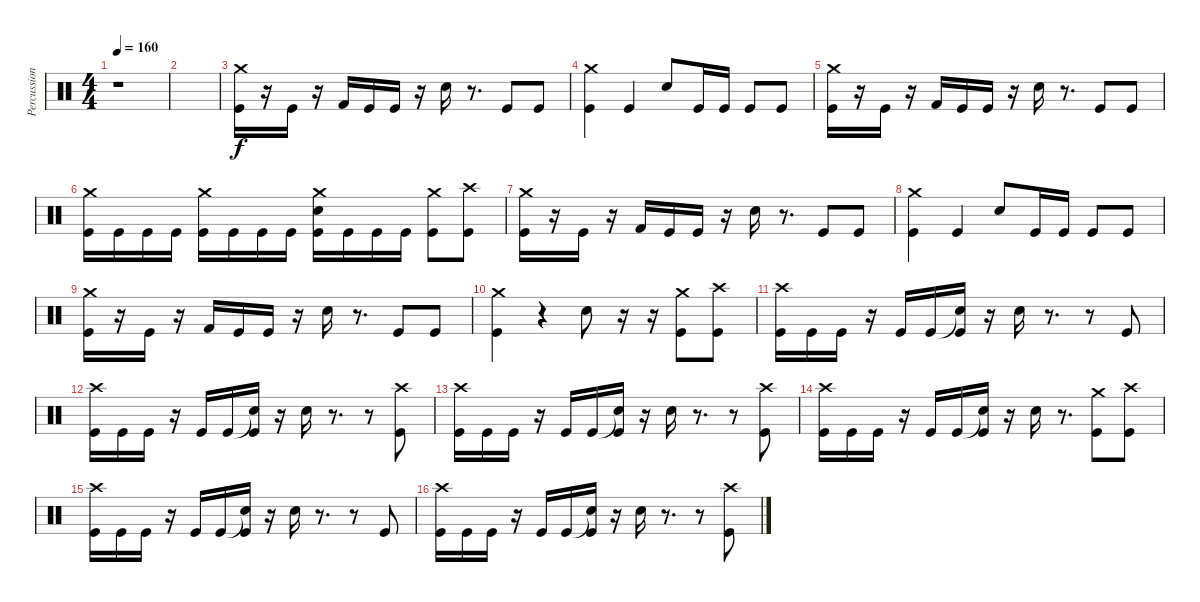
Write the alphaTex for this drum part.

\track ("Percussion" "Percussion") {instrument percussion}
\staff {score}
\articulation defaults
\ts (4 4)
\tempo 160
\clef neutral
\ks c
r.1{dy f} |
|
("Crash medium (hit)" "Kick (hit)").16 r.16 "Kick (hit)".16 r.16 "Kick (hit) 2".16 "Kick (hit)".16 "Kick (hit)".16 r.16 "Snare (hit) 2".16 r.8{d} "Kick (hit)".8 "Kick (hit)".8 |
("Crash medium (hit)" "Kick (hit)").4 "Kick (hit)".4 "Snare (hit) 2".8 "Kick (hit)".16 "Kick (hit)".16 "Kick (hit)".8 "Kick (hit)".8 |
("Crash medium (hit)" "Kick (hit)").16 r.16 "Kick (hit)".16 r.16 "Kick (hit) 2".16 "Kick (hit)".16 "Kick (hit)".16 r.16 "Snare (hit) 2".16 r.8{d} "Kick (hit)".8 "Kick (hit)".8 |
("Crash medium (hit)" "Kick (hit)").16 "Kick (hit)".16 "Kick (hit)".16 "Kick (hit)".16 ("Crash medium (hit)" "Kick (hit)").16 "Kick (hit)".16 "Kick (hit)".16 "Kick (hit)".16 ("Crash medium (hit)" "Snare (hit) 2" "Kick (hit)").16 "Kick (hit)".16 "Kick (hit)".16 "Kick (hit)".16 ("Crash medium (hit)" "Kick (hit)").8 ("Crash high (hit)" "Kick (hit)").8 |
("Crash medium (hit)" "Kick (hit)").16 r.16 "Kick (hit)".16 r.16 "Kick (hit) 2".16 "Kick (hit)".16 "Kick (hit)".16 r.16 "Snare (hit) 2".16 r.8{d} "Kick (hit)".8 "Kick (hit)".8 |
("Crash medium (hit)" "Kick (hit)").4 "Kick (hit)".4 "Snare (hit) 2".8 "Kick (hit)".16 "Kick (hit)".16 "Kick (hit)".8 "Kick (hit)".8 |
("Crash medium (hit)" "Kick (hit)").16 r.16 "Kick (hit)".16 r.16 "Kick (hit) 2".16 "Kick (hit)".16 "Kick (hit)".16 r.16 "Snare (hit) 2".16 r.8{d} "Kick (hit)".8 "Kick (hit)".8 |
("Crash medium (hit)" "Kick (hit)").4 r.4 "Snare (hit) 2".8 r.16 r.16 ("Crash medium (hit)" "Kick (hit)").8 ("Crash high (hit)" "Kick (hit)").8 |
("Crash high (hit)" "Kick (hit)").16 "Kick (hit)".16 "Kick (hit)".16 r.16 "Kick (hit)".16 "Kick (hit)".16 ("Snare (hit)"{t} "Kick (hit)").16 r.16 "Snare (hit) 2".16 r.8{d} r.8 "Kick (hit)".8 |
("Crash high (hit)" "Kick (hit)").16 "Kick (hit)".16 "Kick (hit)".16 r.16 "Kick (hit)".16 "Kick (hit)".16 ("Snare (hit)"{t} "Kick (hit)").16 r.16 "Snare (hit) 2".16 r.8{d} r.8 ("Crash high (hit)" "Kick (hit)").8 |
("Crash high (hit)" "Kick (hit)").16 "Kick (hit)".16 "Kick (hit)".16 r.16 "Kick (hit)".16 "Kick (hit)".16 ("Snare (hit)"{t} "Kick (hit)").16 r.16 "Snare (hit) 2".16 r.8{d} r.8 ("Crash high (hit)" "Kick (hit)").8 |
("Crash high (hit)" "Kick (hit)").16 "Kick (hit)".16 "Kick (hit)".16 r.16 "Kick (hit)".16 "Kick (hit)".16 ("Snare (hit)"{t} "Kick (hit)").16 r.16 "Snare (hit) 2".16 r.8{d} ("Crash medium (hit)" "Kick (hit)").8 ("Crash high (hit)" "Kick (hit)").8 |
("Crash high (hit)" "Kick (hit)").16 "Kick (hit)".16 "Kick (hit)".16 r.16 "Kick (hit)".16 "Kick (hit)".16 ("Snare (hit)"{t} "Kick (hit)").16 r.16 "Snare (hit) 2".16 r.8{d} r.8 "Kick (hit)".8 |
("Crash high (hit)" "Kick (hit)").16 "Kick (hit)".16 "Kick (hit)".16 r.16 "Kick (hit)".16 "Kick (hit)".16 ("Snare (hit)"{t} "Kick (hit)").16 r.16 "Snare (hit) 2".16 r.8{d} r.8 ("Crash high (hit)" "Kick (hit)").8
